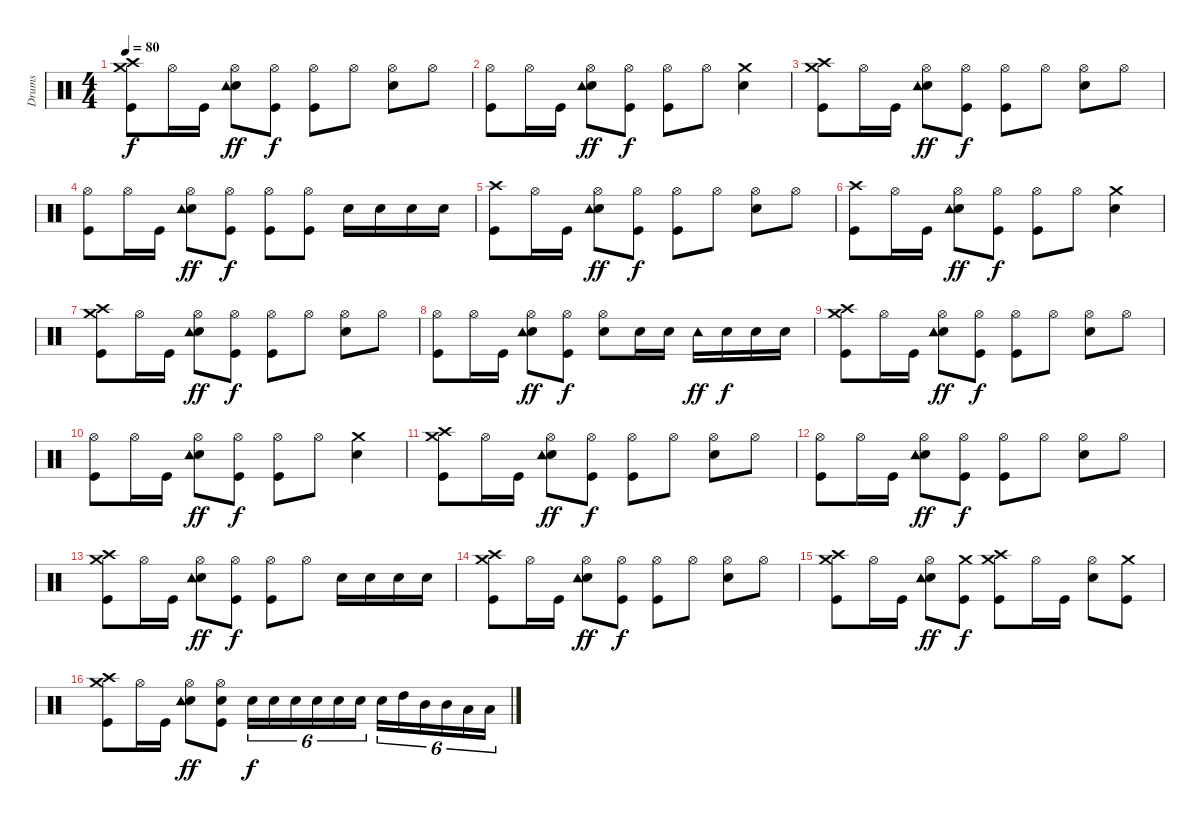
\track ("Drums" "Drums") {instrument percussion}
\staff {score}
\articulation defaults
\ts (4 4)
\tempo 80
\clef neutral
\ks c
("Crash high (hit)" "Crash medium (hit)" "Kick (hit)").8{dy f} "Hi-Hat (open)".16 "Kick (hit)".16 ("Electric Snare (hit)" "Hi-Hat (open)" "Tambourine (hit)").8{dy ff} ("Hi-Hat (open)" "Kick (hit)").8{dy f} ("Hi-Hat (open)" "Kick (hit)").8 "Hi-Hat (open)".8 ("Electric Snare (hit)" "Hi-Hat (open)").8 "Hi-Hat (open)".8 |
("Hi-Hat (open)" "Kick (hit)").8 "Hi-Hat (open)".16 "Kick (hit)".16 ("Electric Snare (hit)" "Hi-Hat (open)" "Tambourine (hit)").8{dy ff} ("Hi-Hat (open)" "Kick (hit)").8{dy f} ("Hi-Hat (open)" "Kick (hit)").8 "Hi-Hat (open)".8 ("Electric Snare (hit)" "Crash medium (hit)").4 |
("Crash high (hit)" "Crash medium (hit)" "Kick (hit)").8 "Hi-Hat (open)".16 "Kick (hit)".16 ("Electric Snare (hit)" "Hi-Hat (open)" "Tambourine (hit)").8{dy ff} ("Hi-Hat (open)" "Kick (hit)").8{dy f} ("Hi-Hat (open)" "Kick (hit)").8 "Hi-Hat (open)".8 ("Electric Snare (hit)" "Hi-Hat (open)").8 "Hi-Hat (open)".8 |
("Hi-Hat (open)" "Kick (hit)").8 "Hi-Hat (open)".16 "Kick (hit)".16 ("Electric Snare (hit)" "Hi-Hat (open)" "Tambourine (hit)").8{dy ff} ("Hi-Hat (open)" "Kick (hit)").8{dy f} ("Hi-Hat (open)" "Kick (hit)").8 ("Hi-Hat (open)" "Kick (hit)").8 "Electric Snare (hit)".16 "Electric Snare (hit)".16 "Electric Snare (hit)".16 "Electric Snare (hit)".16 |
("Crash high (hit)" "Kick (hit)").8 "Hi-Hat (open)".16 "Kick (hit)".16 ("Electric Snare (hit)" "Hi-Hat (open)" "Tambourine (hit)").8{dy ff} ("Hi-Hat (open)" "Kick (hit)").8{dy f} ("Hi-Hat (open)" "Kick (hit)").8 "Hi-Hat (open)".8 ("Electric Snare (hit)" "Hi-Hat (open)").8 "Hi-Hat (open)".8 |
("Crash high (hit)" "Kick (hit)").8 "Hi-Hat (open)".16 "Kick (hit)".16 ("Electric Snare (hit)" "Hi-Hat (open)" "Tambourine (hit)").8{dy ff} ("Hi-Hat (open)" "Kick (hit)").8{dy f} ("Hi-Hat (open)" "Kick (hit)").8 "Hi-Hat (open)".8 ("Electric Snare (hit)" "Crash medium (hit)").4 |
("Crash high (hit)" "Crash medium (hit)" "Kick (hit)").8 "Hi-Hat (open)".16 "Kick (hit)".16 ("Electric Snare (hit)" "Hi-Hat (open)" "Tambourine (hit)").8{dy ff} ("Hi-Hat (open)" "Kick (hit)").8{dy f} ("Hi-Hat (open)" "Kick (hit)").8 "Hi-Hat (open)".8 ("Electric Snare (hit)" "Hi-Hat (open)").8 "Hi-Hat (open)".8 |
("Hi-Hat (open)" "Kick (hit)").8 "Hi-Hat (open)".16 "Kick (hit)".16 ("Electric Snare (hit)" "Hi-Hat (open)" "Tambourine (hit)").8{dy ff} ("Hi-Hat (open)" "Kick (hit)").8{dy f} ("Electric Snare (hit)" "Hi-Hat (open)").8 "Electric Snare (hit)".16 "Electric Snare (hit)".16 "Tambourine (hit)".16{dy ff} "Electric Snare (hit)".16{dy f} "Electric Snare (hit)".16 "Electric Snare (hit)".16 |
("Crash high (hit)" "Crash medium (hit)" "Kick (hit)").8 "Hi-Hat (open)".16 "Kick (hit)".16 ("Electric Snare (hit)" "Hi-Hat (open)" "Tambourine (hit)").8{dy ff} ("Hi-Hat (open)" "Kick (hit)").8{dy f} ("Hi-Hat (open)" "Kick (hit)").8 "Hi-Hat (open)".8 ("Electric Snare (hit)" "Hi-Hat (open)").8 "Hi-Hat (open)".8 |
("Hi-Hat (open)" "Kick (hit)").8 "Hi-Hat (open)".16 "Kick (hit)".16 ("Electric Snare (hit)" "Hi-Hat (open)" "Tambourine (hit)").8{dy ff} ("Hi-Hat (open)" "Kick (hit)").8{dy f} ("Hi-Hat (open)" "Kick (hit)").8 "Hi-Hat (open)".8 ("Electric Snare (hit)" "Crash medium (hit)").4 |
("Crash high (hit)" "Crash medium (hit)" "Kick (hit)").8 "Hi-Hat (open)".16 "Kick (hit)".16 ("Electric Snare (hit)" "Hi-Hat (open)" "Tambourine (hit)").8{dy ff} ("Hi-Hat (open)" "Kick (hit)").8{dy f} ("Hi-Hat (open)" "Kick (hit)").8 "Hi-Hat (open)".8 ("Electric Snare (hit)" "Hi-Hat (open)").8 "Hi-Hat (open)".8 |
("Hi-Hat (open)" "Kick (hit)").8 "Hi-Hat (open)".16 "Kick (hit)".16 ("Electric Snare (hit)" "Hi-Hat (open)" "Tambourine (hit)").8{dy ff} ("Hi-Hat (open)" "Kick (hit)").8{dy f} ("Hi-Hat (open)" "Kick (hit)").8 "Hi-Hat (open)".8 ("Electric Snare (hit)" "Hi-Hat (open)").8 "Hi-Hat (open)".8 |
("Crash high (hit)" "Crash medium (hit)" "Kick (hit)").8 "Hi-Hat (open)".16 "Kick (hit)".16 ("Electric Snare (hit)" "Hi-Hat (open)" "Tambourine (hit)").8{dy ff} ("Hi-Hat (open)" "Kick (hit)").8{dy f} ("Hi-Hat (open)" "Kick (hit)").8 "Hi-Hat (open)".8 "Electric Snare (hit)".16 "Electric Snare (hit)".16 "Electric Snare (hit)".16 "Electric Snare (hit)".16 |
("Crash high (hit)" "Crash medium (hit)" "Kick (hit)").8 "Hi-Hat (open)".16 "Kick (hit)".16 ("Electric Snare (hit)" "Hi-Hat (open)" "Tambourine (hit)").8{dy ff} ("Hi-Hat (open)" "Kick (hit)").8{dy f} ("Hi-Hat (open)" "Kick (hit)").8 "Hi-Hat (open)".8 ("Electric Snare (hit)" "Hi-Hat (open)").8 "Hi-Hat (open)".8 |
("Crash high (hit)" "Crash medium (hit)" "Kick (hit)").8 "Hi-Hat (open)".16 "Kick (hit)".16 ("Electric Snare (hit)" "Hi-Hat (open)" "Tambourine (hit)").8{dy ff} ("Crash medium (hit)" "Kick (hit)").8{dy f} ("Crash high (hit)" "Crash medium (hit)" "Kick (hit)").8 "Hi-Hat (open)".16 "Kick (hit)".16 ("Electric Snare (hit)" "Hi-Hat (open)").8 ("Crash medium (hit)" "Kick (hit)").8 |
("Crash high (hit)" "Crash medium (hit)" "Kick (hit)").8 "Hi-Hat (open)".16 "Kick (hit)".16 ("Electric Snare (hit)" "Hi-Hat (open)" "Tambourine (hit)").8{dy ff} ("Electric Snare (hit)" "Hi-Hat (open)" "Kick (hit)").8 "Electric Snare (hit)".16{tu (6 4) dy f} "Electric Snare (hit)".16{tu (6 4)} "Electric Snare (hit)".16{tu (6 4)} "Electric Snare (hit)".16{tu (6 4)} "Electric Snare (hit)".16{tu (6 4)} "Electric Snare (hit)".16{tu (6 4)} "Electric Snare (hit)".16{tu (6 4)} "High Tom (hit)".16{tu (6 4)} "Mid Tom (hit)".16{tu (6 4)} "Mid Tom (hit)".16{tu (6 4)} "Low Tom (hit)".16{tu (6 4)} "Low Tom (hit)".16{tu (6 4)}
